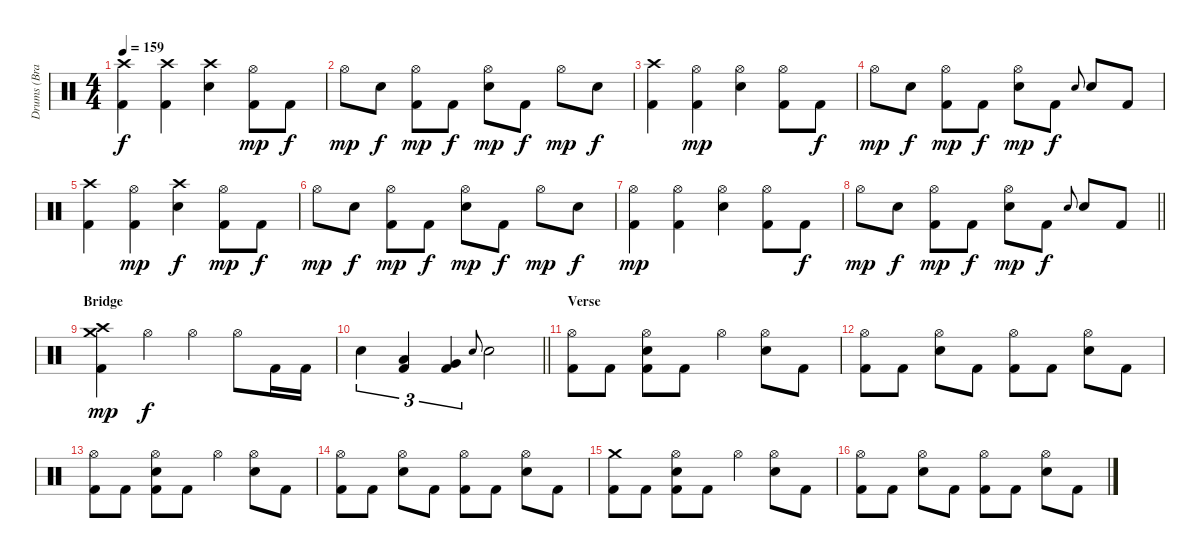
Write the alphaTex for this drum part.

\track ("Drums (Brandon Saller)" "Drums (Bra") {instrument percussion}
\staff {score}
\articulation defaults
\ts (4 4)
\tempo 159
\clef neutral
\ks c
("Crash high (hit)" "Kick (hit) 2").4{dy f} ("Crash high (hit)" "Kick (hit) 2").4 ("Crash high (hit)" "Electric Snare (hit)").4 ("Hi-Hat (open)" "Kick (hit) 2").8{dy mp} "Kick (hit) 2".8{dy f} |
"Hi-Hat (open)".8{dy mp} "Electric Snare (hit)".8{dy f} ("Hi-Hat (open)" "Kick (hit) 2").8{dy mp} "Kick (hit) 2".8{dy f} ("Hi-Hat (open)" "Electric Snare (hit)").8{dy mp} "Kick (hit) 2".8{dy f} "Hi-Hat (open)".8{dy mp} "Electric Snare (hit)".8{dy f} |
("Crash high (hit)" "Kick (hit) 2").4 ("Hi-Hat (open)" "Kick (hit) 2").4{dy mp} ("Hi-Hat (open)" "Electric Snare (hit)").4 ("Hi-Hat (open)" "Kick (hit) 2").8 "Kick (hit) 2".8{dy f} |
"Hi-Hat (open)".8{dy mp} "Electric Snare (hit)".8{dy f} ("Hi-Hat (open)" "Kick (hit) 2").8{dy mp} "Kick (hit) 2".8{dy f} ("Hi-Hat (open)" "Electric Snare (hit)").8{dy mp} "Kick (hit) 2".8{dy f} "Electric Snare (hit)".8{gr onbeat} "Electric Snare (hit)".8 "Kick (hit) 2".8 |
("Crash high (hit)" "Kick (hit) 2").4 ("Hi-Hat (open)" "Kick (hit) 2").4{dy mp} ("Crash high (hit)" "Electric Snare (hit)").4{dy f} ("Hi-Hat (open)" "Kick (hit) 2").8{dy mp} "Kick (hit) 2".8{dy f} |
"Hi-Hat (open)".8{dy mp} "Electric Snare (hit)".8{dy f} ("Hi-Hat (open)" "Kick (hit) 2").8{dy mp} "Kick (hit) 2".8{dy f} ("Hi-Hat (open)" "Electric Snare (hit)").8{dy mp} "Kick (hit) 2".8{dy f} "Hi-Hat (open)".8{dy mp} "Electric Snare (hit)".8{dy f} |
("Hi-Hat (open)" "Kick (hit) 2").4{dy mp} ("Hi-Hat (open)" "Kick (hit) 2").4 ("Hi-Hat (open)" "Electric Snare (hit)").4 ("Hi-Hat (open)" "Kick (hit) 2").8 "Kick (hit) 2".8{dy f} |
\barLineRight lightlight "Hi-Hat (open)".8{dy mp} "Electric Snare (hit)".8{dy f}
("Hi-Hat (open)" "Kick (hit) 2").8{dy mp} "Kick (hit) 2".8{dy f} ("Hi-Hat (open)" "Electric Snare (hit)").8{dy mp} "Kick (hit) 2".8{dy f} "Electric Snare (hit)".8{gr onbeat} "Electric Snare (hit)".8 "Kick (hit) 2".8 |
\section ("" "Bridge")
("Crash high (hit)" "Crash medium (hit)" "Kick (hit) 2").4{dy mp} "Hi-Hat (open)".4{dy f} "Hi-Hat (open)".4 "Hi-Hat (open)".8 "Kick (hit) 2".16 "Kick (hit) 2".16 |
\barLineRight lightlight "Electric Snare (hit)".4{tu (3 2)}
("Low Tom (hit)" "Kick (hit) 2").4{tu (3 2)} ("Very Low Tom (hit)" "Kick (hit) 2").4{tu (3 2)} "Electric Snare (hit)".8{gr onbeat} "Electric Snare (hit)".2 |
\section ("" "Verse")
("Hi-Hat (open)" "Kick (hit) 2").8 "Kick (hit) 2".8 ("Hi-Hat (open)" "Electric Snare (hit)" "Kick (hit) 2").8 "Kick (hit) 2".8 "Hi-Hat (open)".4 ("Hi-Hat (open)" "Electric Snare (hit)").8 "Kick (hit) 2".8 |
("Hi-Hat (open)" "Kick (hit) 2").8 "Kick (hit) 2".8 ("Hi-Hat (open)" "Electric Snare (hit)").8 "Kick (hit) 2".8 ("Hi-Hat (open)" "Kick (hit) 2").8 "Kick (hit) 2".8 ("Hi-Hat (open)" "Electric Snare (hit)").8 "Kick (hit) 2".8 |
("Hi-Hat (open)" "Kick (hit) 2").8 "Kick (hit) 2".8 ("Hi-Hat (open)" "Electric Snare (hit)" "Kick (hit) 2").8 "Kick (hit) 2".8 "Hi-Hat (open)".4 ("Hi-Hat (open)" "Electric Snare (hit)").8 "Kick (hit) 2".8 |
("Hi-Hat (open)" "Kick (hit) 2").8 "Kick (hit) 2".8 ("Hi-Hat (open)" "Electric Snare (hit)").8 "Kick (hit) 2".8 ("Hi-Hat (open)" "Kick (hit) 2").8 "Kick (hit) 2".8 ("Hi-Hat (open)" "Electric Snare (hit)").8 "Kick (hit) 2".8 |
("Crash medium (hit)" "Kick (hit) 2").8 "Kick (hit) 2".8 ("Hi-Hat (open)" "Electric Snare (hit)" "Kick (hit) 2").8 "Kick (hit) 2".8 "Hi-Hat (open)".4 ("Hi-Hat (open)" "Electric Snare (hit)").8 "Kick (hit) 2".8 |
("Hi-Hat (open)" "Kick (hit) 2").8 "Kick (hit) 2".8 ("Hi-Hat (open)" "Electric Snare (hit)").8 "Kick (hit) 2".8 ("Hi-Hat (open)" "Kick (hit) 2").8 "Kick (hit) 2".8 ("Hi-Hat (open)" "Electric Snare (hit)").8 "Kick (hit) 2".8
